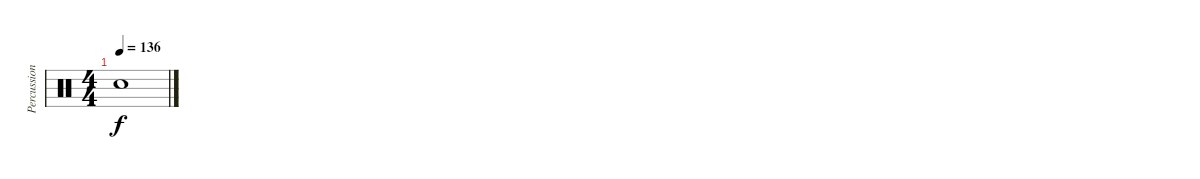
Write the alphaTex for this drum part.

\track ("Percussions" "Percussion") {instrument percussion}
\staff {score}
\articulation defaults
\ts (4 4)
\tempo 136
\clef neutral
\ks c "Snare (hit)"{t}.1{dy f}
